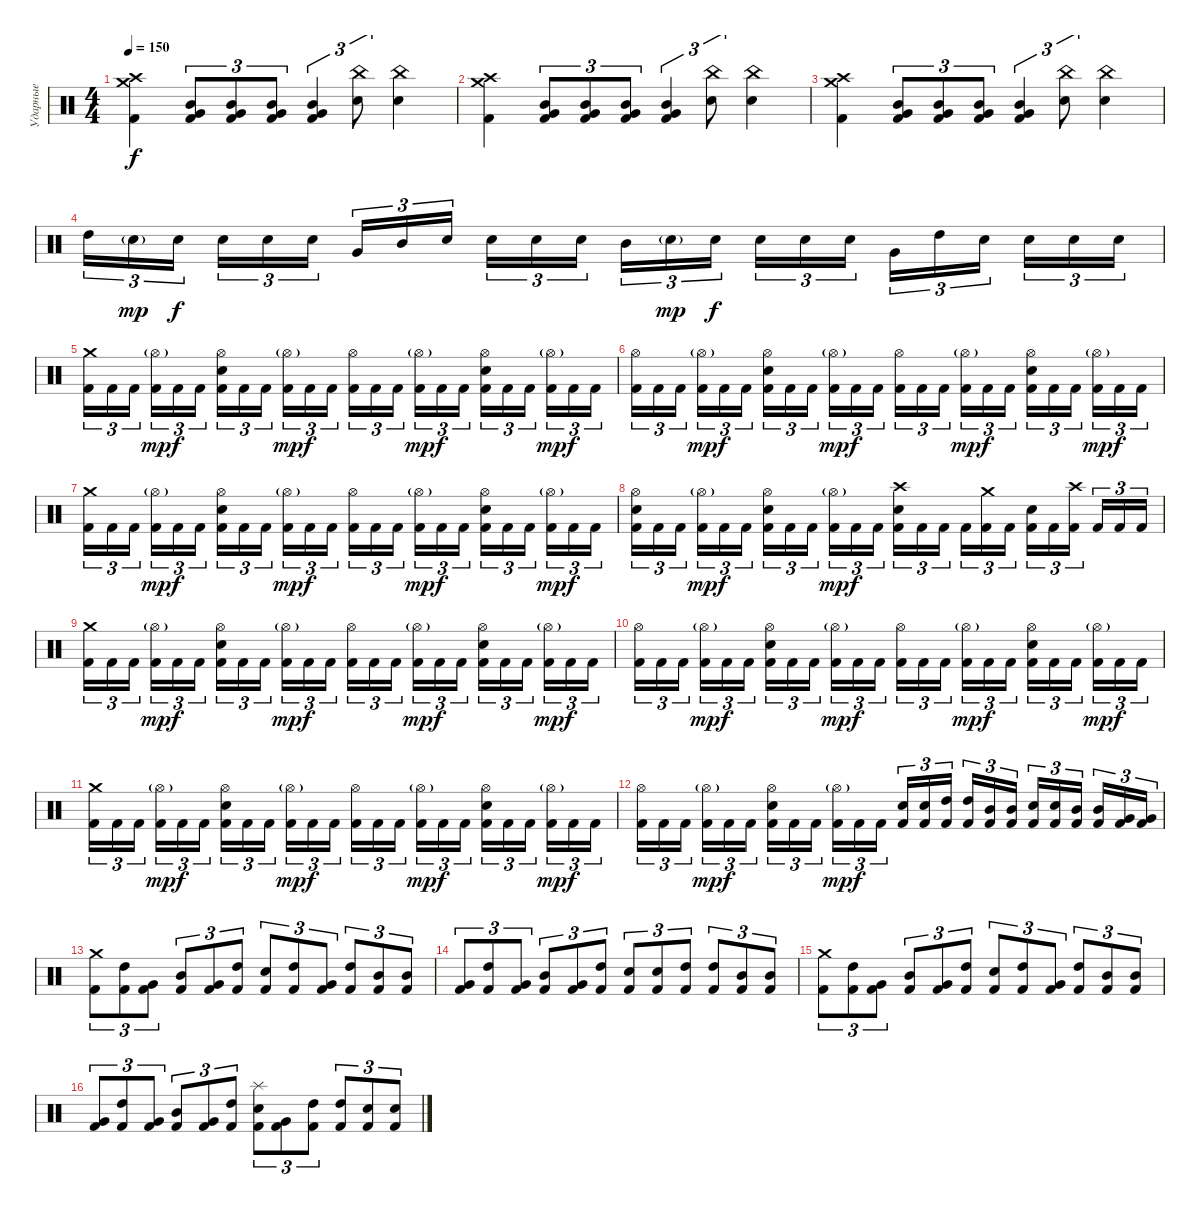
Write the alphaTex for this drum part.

\track ("Ударные" "Ударные") {instrument percussion}
\staff
\articulation defaults
\ts (4 4)
\tempo 150
\clef neutral
\ks c
("Crash medium (hit)" "Crash high (hit)" "Kick (hit) 2").4{dy f} ("Very Low Tom (hit)" "Mid Tom (hit)" "Kick (hit) 2").8{tu (3 2)} ("Very Low Tom (hit)" "Mid Tom (hit)" "Kick (hit) 2").8{tu (3 2)} ("Very Low Tom (hit)" "Mid Tom (hit)" "Kick (hit) 2").8{tu (3 2)} ("Very Low Tom (hit)" "Mid Tom (hit)" "Kick (hit) 2").4{tu (3 2)} ("China (hit)" "Snare (hit) 2").8{tu (3 2)} ("China (hit)" "Snare (hit) 2").4 |
("Crash medium (hit)" "Crash high (hit)" "Kick (hit) 2").4 ("Very Low Tom (hit)" "Mid Tom (hit)" "Kick (hit) 2").8{tu (3 2)} ("Very Low Tom (hit)" "Mid Tom (hit)" "Kick (hit) 2").8{tu (3 2)} ("Very Low Tom (hit)" "Mid Tom (hit)" "Kick (hit) 2").8{tu (3 2)} ("Very Low Tom (hit)" "Mid Tom (hit)" "Kick (hit) 2").4{tu (3 2)} ("China (hit)" "Snare (hit) 2").8{tu (3 2)} ("China (hit)" "Snare (hit) 2").4 |
("Crash medium (hit)" "Crash high (hit)" "Kick (hit) 2").4 ("Very Low Tom (hit)" "Mid Tom (hit)" "Kick (hit) 2").8{tu (3 2)} ("Very Low Tom (hit)" "Mid Tom (hit)" "Kick (hit) 2").8{tu (3 2)} ("Very Low Tom (hit)" "Mid Tom (hit)" "Kick (hit) 2").8{tu (3 2)} ("Very Low Tom (hit)" "Mid Tom (hit)" "Kick (hit) 2").4{tu (3 2)} ("China (hit)" "Snare (hit) 2").8{tu (3 2)} ("China (hit)" "Snare (hit) 2").4 |
"High Tom (hit)".16{tu (3 2)} "Snare (hit) 2"{g}.16{tu (3 2) dy mp} "Snare (hit) 2".16{tu (3 2) dy f beam splitsecondary} "Snare (hit) 2".16{tu (3 2)} "Snare (hit) 2".16{tu (3 2)} "Snare (hit) 2".16{tu (3 2)} "Very Low Tom (hit)".16{tu (3 2)} "Mid Tom (hit)".16{tu (3 2)} "Snare (hit) 2".16{tu (3 2) beam splitsecondary} "Snare (hit) 2".16{tu (3 2)} "Snare (hit) 2".16{tu (3 2)} "Snare (hit) 2".16{tu (3 2)} "Mid Tom (hit)".16{tu (3 2)} "Snare (hit) 2"{g}.16{tu (3 2) dy mp} "Snare (hit) 2".16{tu (3 2) dy f beam splitsecondary} "Snare (hit) 2".16{tu (3 2)} "Snare (hit) 2".16{tu (3 2)} "Snare (hit) 2".16{tu (3 2)} "Very Low Tom (hit)".16{tu (3 2)} "High Tom (hit)".16{tu (3 2)} "Snare (hit) 2".16{tu (3 2) beam splitsecondary} "Snare (hit) 2".16{tu (3 2)} "Snare (hit) 2".16{tu (3 2)} "Snare (hit) 2".16{tu (3 2)} |
("Crash medium (hit)" "Kick (hit) 2").16{tu (3 2)} "Kick (hit) 2".16{tu (3 2)} "Kick (hit) 2".16{tu (3 2) beam splitsecondary} ("Hi-Hat (open)"{g} "Kick (hit) 2").16{tu (3 2) dy mp} "Kick (hit) 2".16{tu (3 2) dy f} "Kick (hit) 2".16{tu (3 2)} ("Hi-Hat (open)" "Snare (hit) 2" "Kick (hit) 2").16{tu (3 2)} "Kick (hit) 2".16{tu (3 2)} "Kick (hit) 2".16{tu (3 2) beam splitsecondary} ("Hi-Hat (open)"{g} "Kick (hit) 2").16{tu (3 2) dy mp} "Kick (hit) 2".16{tu (3 2) dy f} "Kick (hit) 2".16{tu (3 2)} ("Hi-Hat (open)" "Kick (hit) 2").16{tu (3 2)} "Kick (hit) 2".16{tu (3 2)} "Kick (hit) 2".16{tu (3 2) beam splitsecondary} ("Hi-Hat (open)"{g} "Kick (hit) 2").16{tu (3 2) dy mp} "Kick (hit) 2".16{tu (3 2) dy f} "Kick (hit) 2".16{tu (3 2)} ("Hi-Hat (open)" "Snare (hit) 2" "Kick (hit) 2").16{tu (3 2)} "Kick (hit) 2".16{tu (3 2)} "Kick (hit) 2".16{tu (3 2) beam splitsecondary} ("Hi-Hat (open)"{g} "Kick (hit) 2").16{tu (3 2) dy mp} "Kick (hit) 2".16{tu (3 2) dy f} "Kick (hit) 2".16{tu (3 2)} |
("Hi-Hat (open)" "Kick (hit) 2").16{tu (3 2)} "Kick (hit) 2".16{tu (3 2)} "Kick (hit) 2".16{tu (3 2) beam splitsecondary} ("Hi-Hat (open)"{g} "Kick (hit) 2").16{tu (3 2) dy mp} "Kick (hit) 2".16{tu (3 2) dy f} "Kick (hit) 2".16{tu (3 2)} ("Hi-Hat (open)" "Snare (hit) 2" "Kick (hit) 2").16{tu (3 2)} "Kick (hit) 2".16{tu (3 2)} "Kick (hit) 2".16{tu (3 2) beam splitsecondary} ("Hi-Hat (open)"{g} "Kick (hit) 2").16{tu (3 2) dy mp} "Kick (hit) 2".16{tu (3 2) dy f} "Kick (hit) 2".16{tu (3 2)} ("Hi-Hat (open)" "Kick (hit) 2").16{tu (3 2)} "Kick (hit) 2".16{tu (3 2)} "Kick (hit) 2".16{tu (3 2) beam splitsecondary} ("Hi-Hat (open)"{g} "Kick (hit) 2").16{tu (3 2) dy mp} "Kick (hit) 2".16{tu (3 2) dy f} "Kick (hit) 2".16{tu (3 2)} ("Hi-Hat (open)" "Snare (hit) 2" "Kick (hit) 2").16{tu (3 2)} "Kick (hit) 2".16{tu (3 2)} "Kick (hit) 2".16{tu (3 2) beam splitsecondary} ("Hi-Hat (open)"{g} "Kick (hit) 2").16{tu (3 2) dy mp} "Kick (hit) 2".16{tu (3 2) dy f} "Kick (hit) 2".16{tu (3 2)} |
("Crash medium (hit)" "Kick (hit) 2").16{tu (3 2)} "Kick (hit) 2".16{tu (3 2)} "Kick (hit) 2".16{tu (3 2) beam splitsecondary} ("Hi-Hat (open)"{g} "Kick (hit) 2").16{tu (3 2) dy mp} "Kick (hit) 2".16{tu (3 2) dy f} "Kick (hit) 2".16{tu (3 2)} ("Hi-Hat (open)" "Snare (hit) 2" "Kick (hit) 2").16{tu (3 2)} "Kick (hit) 2".16{tu (3 2)} "Kick (hit) 2".16{tu (3 2) beam splitsecondary} ("Hi-Hat (open)"{g} "Kick (hit) 2").16{tu (3 2) dy mp} "Kick (hit) 2".16{tu (3 2) dy f} "Kick (hit) 2".16{tu (3 2)} ("Hi-Hat (open)" "Kick (hit) 2").16{tu (3 2)} "Kick (hit) 2".16{tu (3 2)} "Kick (hit) 2".16{tu (3 2) beam splitsecondary} ("Hi-Hat (open)"{g} "Kick (hit) 2").16{tu (3 2) dy mp} "Kick (hit) 2".16{tu (3 2) dy f} "Kick (hit) 2".16{tu (3 2)} ("Hi-Hat (open)" "Snare (hit) 2" "Kick (hit) 2").16{tu (3 2)} "Kick (hit) 2".16{tu (3 2)} "Kick (hit) 2".16{tu (3 2) beam splitsecondary} ("Hi-Hat (open)"{g} "Kick (hit) 2").16{tu (3 2) dy mp} "Kick (hit) 2".16{tu (3 2) dy f} "Kick (hit) 2".16{tu (3 2)} |
("Hi-Hat (open)" "Snare (hit) 2" "Kick (hit) 2").16{tu (3 2)} "Kick (hit) 2".16{tu (3 2)} "Kick (hit) 2".16{tu (3 2) beam splitsecondary} ("Hi-Hat (open)"{g} "Kick (hit) 2").16{tu (3 2) dy mp} "Kick (hit) 2".16{tu (3 2) dy f} "Kick (hit) 2".16{tu (3 2)} ("Hi-Hat (open)" "Snare (hit) 2" "Kick (hit) 2").16{tu (3 2)} "Kick (hit) 2".16{tu (3 2)} "Kick (hit) 2".16{tu (3 2) beam splitsecondary} ("Hi-Hat (open)"{g} "Kick (hit) 2").16{tu (3 2) dy mp} "Kick (hit) 2".16{tu (3 2) dy f} "Kick (hit) 2".16{tu (3 2)} ("Crash high (hit)" "Snare (hit) 2" "Kick (hit) 2").16{tu (3 2)} "Kick (hit) 2".16{tu (3 2)} "Kick (hit) 2".16{tu (3 2) beam splitsecondary} "Kick (hit) 2".16{tu (3 2)} ("Crash medium (hit)" "Kick (hit) 2").16{tu (3 2)} "Kick (hit) 2".16{tu (3 2)} ("Snare (hit) 2" "Kick (hit) 2").16{tu (3 2)} "Kick (hit) 2".16{tu (3 2)} ("Crash high (hit)" "Kick (hit) 2").16{tu (3 2) beam splitsecondary} "Kick (hit) 2".16{tu (3 2)} "Kick (hit) 2".16{tu (3 2)} "Kick (hit) 2".16{tu (3 2)} |
("Crash medium (hit)" "Kick (hit) 2").16{tu (3 2)} "Kick (hit) 2".16{tu (3 2)} "Kick (hit) 2".16{tu (3 2) beam splitsecondary} ("Hi-Hat (open)"{g} "Kick (hit) 2").16{tu (3 2) dy mp} "Kick (hit) 2".16{tu (3 2) dy f} "Kick (hit) 2".16{tu (3 2)} ("Hi-Hat (open)" "Snare (hit) 2" "Kick (hit) 2").16{tu (3 2)} "Kick (hit) 2".16{tu (3 2)} "Kick (hit) 2".16{tu (3 2) beam splitsecondary} ("Hi-Hat (open)"{g} "Kick (hit) 2").16{tu (3 2) dy mp} "Kick (hit) 2".16{tu (3 2) dy f} "Kick (hit) 2".16{tu (3 2)} ("Hi-Hat (open)" "Kick (hit) 2").16{tu (3 2)} "Kick (hit) 2".16{tu (3 2)} "Kick (hit) 2".16{tu (3 2) beam splitsecondary} ("Hi-Hat (open)"{g} "Kick (hit) 2").16{tu (3 2) dy mp} "Kick (hit) 2".16{tu (3 2) dy f} "Kick (hit) 2".16{tu (3 2)} ("Hi-Hat (open)" "Snare (hit) 2" "Kick (hit) 2").16{tu (3 2)} "Kick (hit) 2".16{tu (3 2)} "Kick (hit) 2".16{tu (3 2) beam splitsecondary} ("Hi-Hat (open)"{g} "Kick (hit) 2").16{tu (3 2) dy mp} "Kick (hit) 2".16{tu (3 2) dy f} "Kick (hit) 2".16{tu (3 2)} |
("Hi-Hat (open)" "Kick (hit) 2").16{tu (3 2)} "Kick (hit) 2".16{tu (3 2)} "Kick (hit) 2".16{tu (3 2) beam splitsecondary} ("Hi-Hat (open)"{g} "Kick (hit) 2").16{tu (3 2) dy mp} "Kick (hit) 2".16{tu (3 2) dy f} "Kick (hit) 2".16{tu (3 2)} ("Hi-Hat (open)" "Snare (hit) 2" "Kick (hit) 2").16{tu (3 2)} "Kick (hit) 2".16{tu (3 2)} "Kick (hit) 2".16{tu (3 2) beam splitsecondary} ("Hi-Hat (open)"{g} "Kick (hit) 2").16{tu (3 2) dy mp} "Kick (hit) 2".16{tu (3 2) dy f} "Kick (hit) 2".16{tu (3 2)} ("Hi-Hat (open)" "Kick (hit) 2").16{tu (3 2)} "Kick (hit) 2".16{tu (3 2)} "Kick (hit) 2".16{tu (3 2) beam splitsecondary} ("Hi-Hat (open)"{g} "Kick (hit) 2").16{tu (3 2) dy mp} "Kick (hit) 2".16{tu (3 2) dy f} "Kick (hit) 2".16{tu (3 2)} ("Hi-Hat (open)" "Snare (hit) 2" "Kick (hit) 2").16{tu (3 2)} "Kick (hit) 2".16{tu (3 2)} "Kick (hit) 2".16{tu (3 2) beam splitsecondary} ("Hi-Hat (open)"{g} "Kick (hit) 2").16{tu (3 2) dy mp} "Kick (hit) 2".16{tu (3 2) dy f} "Kick (hit) 2".16{tu (3 2)} |
("Crash medium (hit)" "Kick (hit) 2").16{tu (3 2)} "Kick (hit) 2".16{tu (3 2)} "Kick (hit) 2".16{tu (3 2) beam splitsecondary} ("Hi-Hat (open)"{g} "Kick (hit) 2").16{tu (3 2) dy mp} "Kick (hit) 2".16{tu (3 2) dy f} "Kick (hit) 2".16{tu (3 2)} ("Hi-Hat (open)" "Snare (hit) 2" "Kick (hit) 2").16{tu (3 2)} "Kick (hit) 2".16{tu (3 2)} "Kick (hit) 2".16{tu (3 2) beam splitsecondary} ("Hi-Hat (open)"{g} "Kick (hit) 2").16{tu (3 2) dy mp} "Kick (hit) 2".16{tu (3 2) dy f} "Kick (hit) 2".16{tu (3 2)} ("Hi-Hat (open)" "Kick (hit) 2").16{tu (3 2)} "Kick (hit) 2".16{tu (3 2)} "Kick (hit) 2".16{tu (3 2) beam splitsecondary} ("Hi-Hat (open)"{g} "Kick (hit) 2").16{tu (3 2) dy mp} "Kick (hit) 2".16{tu (3 2) dy f} "Kick (hit) 2".16{tu (3 2)} ("Hi-Hat (open)" "Snare (hit) 2" "Kick (hit) 2").16{tu (3 2)} "Kick (hit) 2".16{tu (3 2)} "Kick (hit) 2".16{tu (3 2) beam splitsecondary} ("Hi-Hat (open)"{g} "Kick (hit) 2").16{tu (3 2) dy mp} "Kick (hit) 2".16{tu (3 2) dy f} "Kick (hit) 2".16{tu (3 2)} |
("Hi-Hat (open)" "Kick (hit) 2").16{tu (3 2)} "Kick (hit) 2".16{tu (3 2)} "Kick (hit) 2".16{tu (3 2) beam splitsecondary} ("Hi-Hat (open)"{g} "Kick (hit) 2").16{tu (3 2) dy mp} "Kick (hit) 2".16{tu (3 2) dy f} "Kick (hit) 2".16{tu (3 2)} ("Hi-Hat (open)" "Snare (hit) 2" "Kick (hit) 2").16{tu (3 2)} "Kick (hit) 2".16{tu (3 2)} "Kick (hit) 2".16{tu (3 2) beam splitsecondary} ("Hi-Hat (open)"{g} "Kick (hit) 2").16{tu (3 2) dy mp} "Kick (hit) 2".16{tu (3 2) dy f} "Kick (hit) 2".16{tu (3 2)} ("Snare (hit) 2" "Kick (hit) 2").16{tu (3 2)} ("Snare (hit) 2" "Kick (hit) 2").16{tu (3 2)} ("High Tom (hit)" "Kick (hit) 2").16{tu (3 2) beam splitsecondary} ("High Tom (hit)" "Kick (hit) 2").16{tu (3 2)} ("Mid Tom (hit)" "Kick (hit) 2").16{tu (3 2)} ("Mid Tom (hit)" "Kick (hit) 2").16{tu (3 2)} ("Snare (hit) 2" "Kick (hit) 2").16{tu (3 2)} ("Snare (hit) 2" "Kick (hit) 2").16{tu (3 2)} ("Mid Tom (hit)" "Kick (hit) 2").16{tu (3 2) beam splitsecondary} ("Mid Tom (hit)" "Kick (hit) 2").16{tu (3 2)} ("Very Low Tom (hit)" "Kick (hit) 2").16{tu (3 2)} ("Very Low Tom (hit)" "Kick (hit) 2").16{tu (3 2)} |
("Crash medium (hit)" "Kick (hit) 2").8{tu (3 2)} ("High Tom (hit)" "Kick (hit) 2").8{tu (3 2)} ("Very Low Tom (hit)" "Kick (hit) 2").8{tu (3 2)} ("Mid Tom (hit)" "Kick (hit) 2").8{tu (3 2)} ("Very Low Tom (hit)" "Kick (hit) 2").8{tu (3 2)} ("High Tom (hit)" "Kick (hit) 2").8{tu (3 2)} ("Snare (hit) 2" "Kick (hit) 2").8{tu (3 2)} ("High Tom (hit)" "Kick (hit) 2").8{tu (3 2)} ("Very Low Tom (hit)" "Kick (hit) 2").8{tu (3 2)} ("High Tom (hit)" "Kick (hit) 2").8{tu (3 2)} ("Mid Tom (hit)" "Kick (hit) 2").8{tu (3 2)} ("Mid Tom (hit)" "Kick (hit) 2").8{tu (3 2)} |
("Very Low Tom (hit)" "Kick (hit) 2").8{tu (3 2)} ("High Tom (hit)" "Kick (hit) 2").8{tu (3 2)} ("Very Low Tom (hit)" "Kick (hit) 2").8{tu (3 2)} ("Mid Tom (hit)" "Kick (hit) 2").8{tu (3 2)} ("Very Low Tom (hit)" "Kick (hit) 2").8{tu (3 2)} ("High Tom (hit)" "Kick (hit) 2").8{tu (3 2)} ("Snare (hit) 2" "Kick (hit) 2").8{tu (3 2)} ("Snare (hit) 2" "Kick (hit) 2").8{tu (3 2)} ("High Tom (hit)" "Kick (hit) 2").8{tu (3 2)} ("High Tom (hit)" "Kick (hit) 2").8{tu (3 2)} ("Mid Tom (hit)" "Kick (hit) 2").8{tu (3 2)} ("Mid Tom (hit)" "Kick (hit) 2").8{tu (3 2)} |
("Crash medium (hit)" "Kick (hit) 2").8{tu (3 2)} ("High Tom (hit)" "Kick (hit) 2").8{tu (3 2)} ("Very Low Tom (hit)" "Kick (hit) 2").8{tu (3 2)} ("Mid Tom (hit)" "Kick (hit) 2").8{tu (3 2)} ("Very Low Tom (hit)" "Kick (hit) 2").8{tu (3 2)} ("High Tom (hit)" "Kick (hit) 2").8{tu (3 2)} ("Snare (hit) 2" "Kick (hit) 2").8{tu (3 2)} ("High Tom (hit)" "Kick (hit) 2").8{tu (3 2)} ("Very Low Tom (hit)" "Kick (hit) 2").8{tu (3 2)} ("High Tom (hit)" "Kick (hit) 2").8{tu (3 2)} ("Mid Tom (hit)" "Kick (hit) 2").8{tu (3 2)} ("Mid Tom (hit)" "Kick (hit) 2").8{tu (3 2)} |
("Very Low Tom (hit)" "Kick (hit) 2").8{tu (3 2)} ("High Tom (hit)" "Kick (hit) 2").8{tu (3 2)} ("Very Low Tom (hit)" "Kick (hit) 2").8{tu (3 2)} ("Mid Tom (hit)" "Kick (hit) 2").8{tu (3 2)} ("Very Low Tom (hit)" "Kick (hit) 2").8{tu (3 2)} ("High Tom (hit)" "Kick (hit) 2").8{tu (3 2)} ("Splash (hit)" "Snare (hit) 2" "Kick (hit) 2").8{tu (3 2)} ("Very Low Tom (hit)" "Kick (hit) 2").8{tu (3 2)} ("High Tom (hit)" "Kick (hit) 2").8{tu (3 2)} ("High Tom (hit)" "Kick (hit) 2").8{tu (3 2)} ("Snare (hit) 2" "Kick (hit) 2").8{tu (3 2)} ("Snare (hit) 2" "Kick (hit) 2").8{tu (3 2)}
